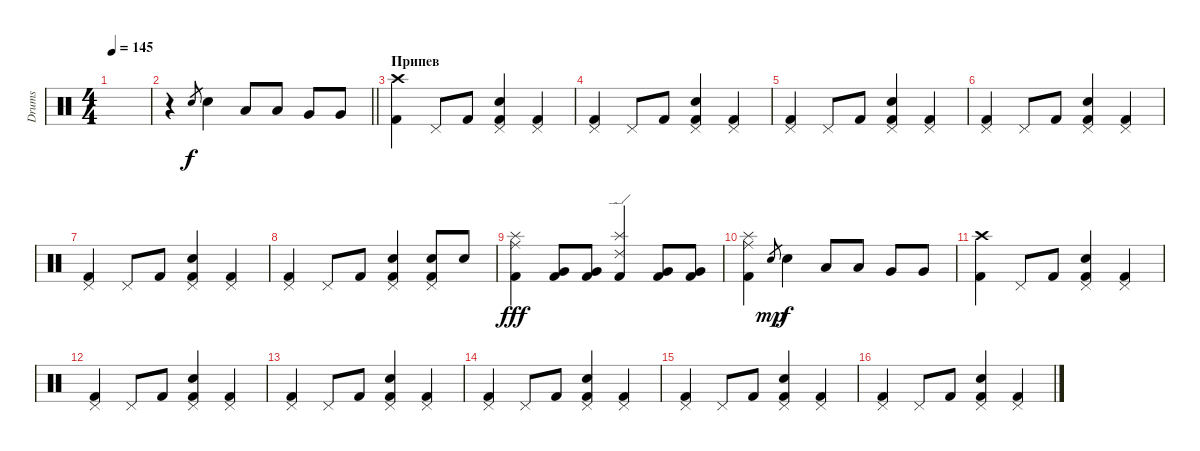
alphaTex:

\track ("Drums" "Drums") {instrument percussion}
\staff {score}
\articulation defaults
\ts (4 4)
\tempo 145
\clef neutral
\ks c
|
\barLineRight lightlight
r.4 "Electric Snare (hit)".8{gr} "Electric Snare (hit)".4{dy f} "Low Tom (hit)".8 "Low Tom (hit)".8 "Very Low Tom (hit)".8 "Very Low Tom (hit)".8 |
\section ("" "Припев")
("Crash high (hit)" "Kick (hit) 2").4 "Pedal Hi-Hat (hit)".8 "Kick (hit) 2".8 ("Pedal Hi-Hat (hit)" "Electric Snare (hit)" "Kick (hit) 2").4 ("Pedal Hi-Hat (hit)" "Kick (hit) 2").4 |
("Pedal Hi-Hat (hit)" "Kick (hit) 2").4 "Pedal Hi-Hat (hit)".8 "Kick (hit) 2".8 ("Pedal Hi-Hat (hit)" "Electric Snare (hit)" "Kick (hit) 2").4 ("Pedal Hi-Hat (hit)" "Kick (hit) 2").4 |
("Pedal Hi-Hat (hit)" "Kick (hit) 2").4 "Pedal Hi-Hat (hit)".8 "Kick (hit) 2".8 ("Pedal Hi-Hat (hit)" "Electric Snare (hit)" "Kick (hit) 2").4 ("Pedal Hi-Hat (hit)" "Kick (hit) 2").4 |
("Pedal Hi-Hat (hit)" "Kick (hit) 2").4 "Pedal Hi-Hat (hit)".8 "Kick (hit) 2".8 ("Pedal Hi-Hat (hit)" "Electric Snare (hit)" "Kick (hit) 2").4 ("Pedal Hi-Hat (hit)" "Kick (hit) 2").4 |
("Pedal Hi-Hat (hit)" "Kick (hit) 2").4 "Pedal Hi-Hat (hit)".8 "Kick (hit) 2".8 ("Pedal Hi-Hat (hit)" "Electric Snare (hit)" "Kick (hit) 2").4 ("Pedal Hi-Hat (hit)" "Kick (hit) 2").4 |
("Pedal Hi-Hat (hit)" "Kick (hit) 2").4 "Pedal Hi-Hat (hit)".8 "Kick (hit) 2".8 ("Pedal Hi-Hat (hit)" "Electric Snare (hit)" "Kick (hit) 2").4 ("Pedal Hi-Hat (hit)" "Electric Snare (hit)" "Kick (hit) 2").8 "Electric Snare (hit)".8 |
("Ride (middle)" "Splash (hit)" "Kick (hit) 2").4{dy fff} ("Very Low Tom (hit)" "Kick (hit) 2").8 ("Very Low Tom (hit)" "Kick (hit) 2").8 ("Ride (edge) 2" "Splash (hit)" "Kick (hit) 2").4 ("Very Low Tom (hit)" "Kick (hit) 2").8 ("Very Low Tom (hit)" "Kick (hit) 2").8 |
("Ride (middle)" "Splash (hit)" "Kick (hit) 2").4 "Electric Snare (hit)".8{gr dy mp} "Electric Snare (hit)".4{dy f} "Low Tom (hit)".8 "Low Tom (hit)".8 "Very Low Tom (hit)".8 "Very Low Tom (hit)".8 |
("Crash high (hit)" "Kick (hit) 2").4 "Pedal Hi-Hat (hit)".8 "Kick (hit) 2".8 ("Pedal Hi-Hat (hit)" "Electric Snare (hit)" "Kick (hit) 2").4 ("Pedal Hi-Hat (hit)" "Kick (hit) 2").4 |
("Pedal Hi-Hat (hit)" "Kick (hit) 2").4 "Pedal Hi-Hat (hit)".8 "Kick (hit) 2".8 ("Pedal Hi-Hat (hit)" "Electric Snare (hit)" "Kick (hit) 2").4 ("Pedal Hi-Hat (hit)" "Kick (hit) 2").4 |
("Pedal Hi-Hat (hit)" "Kick (hit) 2").4 "Pedal Hi-Hat (hit)".8 "Kick (hit) 2".8 ("Pedal Hi-Hat (hit)" "Electric Snare (hit)" "Kick (hit) 2").4 ("Pedal Hi-Hat (hit)" "Kick (hit) 2").4 |
("Pedal Hi-Hat (hit)" "Kick (hit) 2").4 "Pedal Hi-Hat (hit)".8 "Kick (hit) 2".8 ("Pedal Hi-Hat (hit)" "Electric Snare (hit)" "Kick (hit) 2").4 ("Pedal Hi-Hat (hit)" "Kick (hit) 2").4 |
("Pedal Hi-Hat (hit)" "Kick (hit) 2").4 "Pedal Hi-Hat (hit)".8 "Kick (hit) 2".8 ("Pedal Hi-Hat (hit)" "Electric Snare (hit)" "Kick (hit) 2").4 ("Pedal Hi-Hat (hit)" "Kick (hit) 2").4 |
("Pedal Hi-Hat (hit)" "Kick (hit) 2").4 "Pedal Hi-Hat (hit)".8 "Kick (hit) 2".8 ("Pedal Hi-Hat (hit)" "Electric Snare (hit)" "Kick (hit) 2").4 ("Pedal Hi-Hat (hit)" "Kick (hit) 2").4
